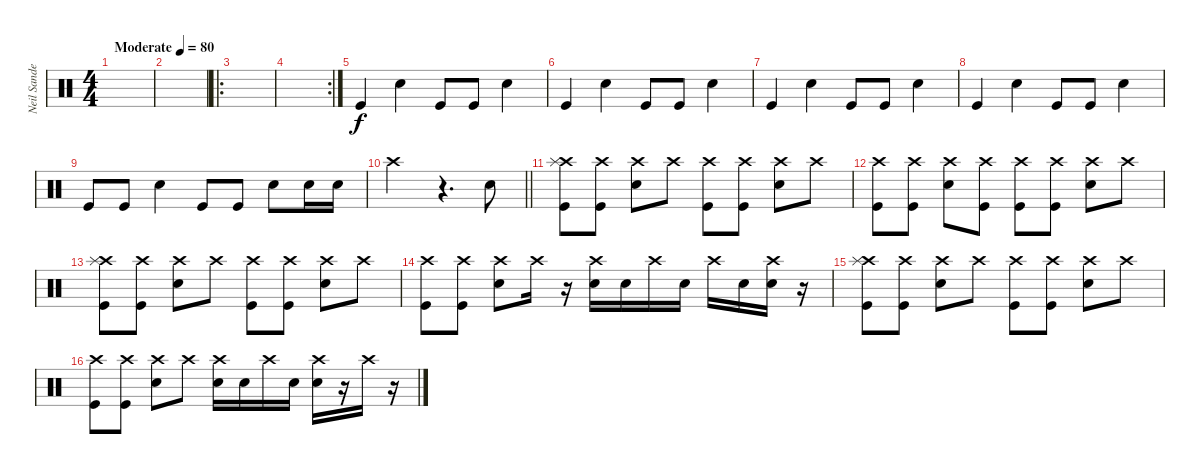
\track ("Neil Sanderson" "Neil Sande") {instrument percussion}
\staff {score}
\articulation defaults
\ts (4 4)
\tempo (80 "Moderate")
\clef neutral
\ks c
|
|
\ro
|
\rc 2
|
"Kick (hit)".4 "Snare (hit) 2".4 "Kick (hit)".8 "Kick (hit)".8 "Snare (hit) 2".4 |
"Kick (hit)".4 "Snare (hit) 2".4 "Kick (hit)".8 "Kick (hit)".8 "Snare (hit) 2".4 |
"Kick (hit)".4 "Snare (hit) 2".4 "Kick (hit)".8 "Kick (hit)".8 "Snare (hit) 2".4 |
"Kick (hit)".4 "Snare (hit) 2".4 "Kick (hit)".8 "Kick (hit)".8 "Snare (hit) 2".4 |
"Kick (hit)".8 "Kick (hit)".8 "Snare (hit) 2".4 "Kick (hit)".8 "Kick (hit)".8 "Snare (hit) 2".8 "Snare (hit) 2".16 "Snare (hit) 2".16 |
\barLineRight lightlight "Crash high (hit)".2
r.4{d} "Snare (hit) 2".8 |
("Crash high (hit)" "Splash (hit)" "Kick (hit)").8 ("Crash high (hit)" "Kick (hit)").8 ("Crash high (hit)" "Snare (hit) 2").8 "Crash high (hit)".8 ("Crash high (hit)" "Kick (hit)").8 ("Crash high (hit)" "Kick (hit)").8 ("Crash high (hit)" "Snare (hit) 2").8 "Crash high (hit)".8 |
("Crash high (hit)" "Kick (hit)").8 ("Crash high (hit)" "Kick (hit)").8 ("Crash high (hit)" "Snare (hit) 2").8 ("Crash high (hit)" "Kick (hit)").8 ("Crash high (hit)" "Kick (hit)").8 ("Crash high (hit)" "Kick (hit)").8 ("Crash high (hit)" "Snare (hit) 2").8 "Crash high (hit)".8 |
("Crash high (hit)" "Splash (hit)" "Kick (hit)").8 ("Crash high (hit)" "Kick (hit)").8 ("Crash high (hit)" "Snare (hit) 2").8 "Crash high (hit)".8 ("Crash high (hit)" "Kick (hit)").8 ("Crash high (hit)" "Kick (hit)").8 ("Crash high (hit)" "Snare (hit) 2").8 "Crash high (hit)".8 |
("Crash high (hit)" "Kick (hit)").8 ("Crash high (hit)" "Kick (hit)").8 ("Crash high (hit)" "Snare (hit) 2").8 "Crash high (hit)".16 r.16 ("Crash high (hit)" "Snare (hit) 2").16 "Snare (hit) 2".16 "Crash high (hit)".16 "Snare (hit) 2".16 "Crash high (hit)".16 "Snare (hit) 2".16 ("Crash high (hit)" "Snare (hit) 2").16 r.16 |
("Crash high (hit)" "Splash (hit)" "Kick (hit)").8 ("Crash high (hit)" "Kick (hit)").8 ("Crash high (hit)" "Snare (hit) 2").8 "Crash high (hit)".8 ("Crash high (hit)" "Kick (hit)").8 ("Crash high (hit)" "Kick (hit)").8 ("Crash high (hit)" "Snare (hit) 2").8 "Crash high (hit)".8 |
("Crash high (hit)" "Kick (hit)").8 ("Crash high (hit)" "Kick (hit)").8 ("Crash high (hit)" "Snare (hit) 2").8 "Crash high (hit)".8 ("Crash high (hit)" "Snare (hit) 2").16 "Snare (hit) 2".16 "Crash high (hit)".16 "Snare (hit) 2".16 ("Crash high (hit)" "Snare (hit) 2").16 r.16 "Crash high (hit)".16 r.16
